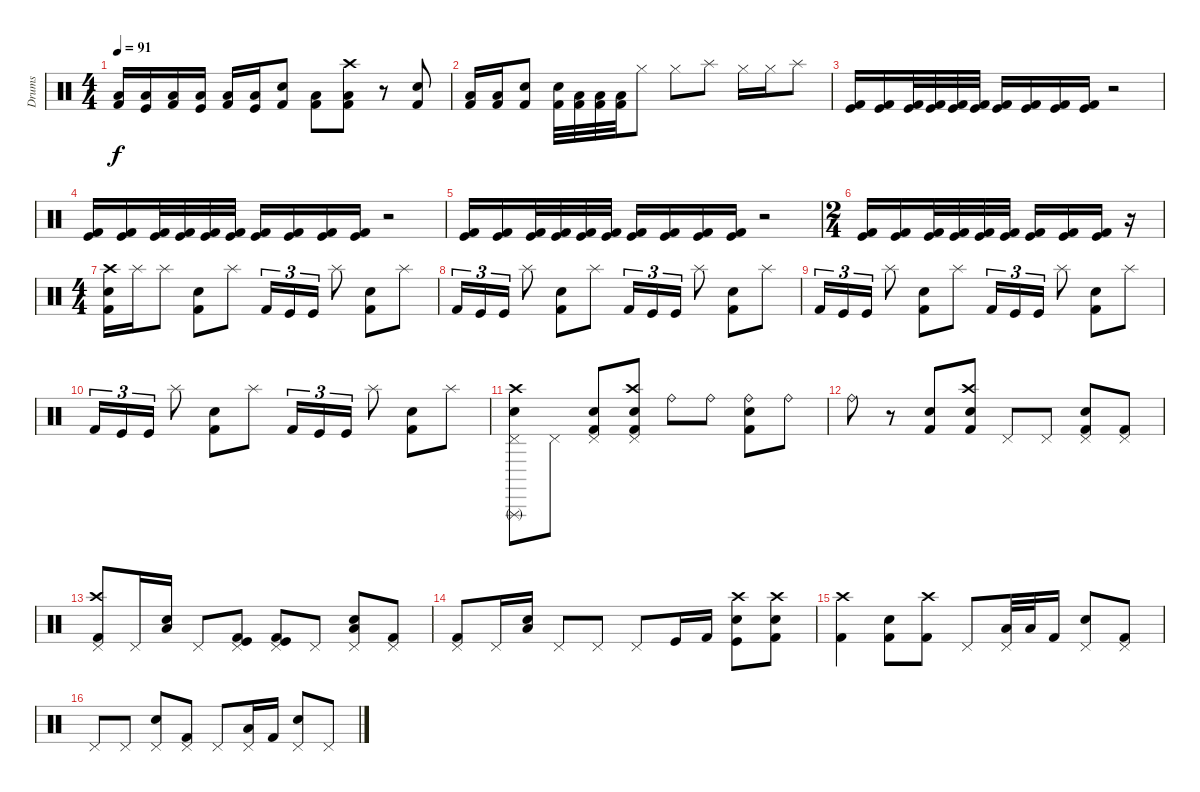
\track ("Drums" "Drums") {instrument percussion}
\staff {score}
\articulation defaults
\ts (4 4)
\tempo 91
\clef neutral
\ks c
("Kick (hit) 2" "Low Floor Tom (hit)").16{dy f} ("Kick (hit)" "Low Floor Tom (hit)").16 ("Kick (hit) 2" "Low Floor Tom (hit)").16 ("Kick (hit)" "Low Floor Tom (hit)").16 ("Kick (hit) 2" "Low Floor Tom (hit)").16 ("Kick (hit)" "Low Floor Tom (hit)").16 ("Kick (hit) 2" "Electric Snare (hit)").8 ("Kick (hit) 2" "Low Floor Tom (hit)").8 ("Kick (hit) 2" "Low Floor Tom (hit)" "Crash high (hit)").8 r.8 ("Kick (hit) 2" "Electric Snare (hit)").8 |
("Kick (hit) 2" "Low Floor Tom (hit)").16 ("Kick (hit) 2" "Low Floor Tom (hit)").16 ("Kick (hit) 2" "Electric Snare (hit)").8 ("Kick (hit) 2" "Electric Snare (hit)").32 ("Kick (hit) 2" "Low Floor Tom (hit)").32 ("Kick (hit) 2" "Low Floor Tom (hit)").32 ("Kick (hit) 2" "Low Floor Tom (hit)").32 "Hi-Hat (closed)".8 "Hi-Hat (closed)".8 "Splash (hit)".8 "Hi-Hat (closed)".16 "Hi-Hat (closed)".16 "Splash (hit)".8 |
("Kick (hit) 2" "Kick (hit)").16 ("Kick (hit) 2" "Kick (hit)").16 ("Kick (hit) 2" "Kick (hit)").32 ("Kick (hit) 2" "Kick (hit)").32 ("Kick (hit) 2" "Kick (hit)").32 ("Kick (hit) 2" "Kick (hit)").32 ("Kick (hit) 2" "Kick (hit)").16 ("Kick (hit) 2" "Kick (hit)").16 ("Kick (hit) 2" "Kick (hit)").16 ("Kick (hit) 2" "Kick (hit)").16 r.2 |
("Kick (hit) 2" "Kick (hit)").16 ("Kick (hit) 2" "Kick (hit)").16 ("Kick (hit) 2" "Kick (hit)").32 ("Kick (hit) 2" "Kick (hit)").32 ("Kick (hit) 2" "Kick (hit)").32 ("Kick (hit) 2" "Kick (hit)").32 ("Kick (hit) 2" "Kick (hit)").16 ("Kick (hit) 2" "Kick (hit)").16 ("Kick (hit) 2" "Kick (hit)").16 ("Kick (hit) 2" "Kick (hit)").16 r.2 |
("Kick (hit) 2" "Kick (hit)").16 ("Kick (hit) 2" "Kick (hit)").16 ("Kick (hit) 2" "Kick (hit)").32 ("Kick (hit) 2" "Kick (hit)").32 ("Kick (hit) 2" "Kick (hit)").32 ("Kick (hit) 2" "Kick (hit)").32 ("Kick (hit) 2" "Kick (hit)").16 ("Kick (hit) 2" "Kick (hit)").16 ("Kick (hit) 2" "Kick (hit)").16 ("Kick (hit) 2" "Kick (hit)").16 r.2 |
\ts (2 4)
("Kick (hit) 2" "Kick (hit)").16 ("Kick (hit) 2" "Kick (hit)").16 ("Kick (hit) 2" "Kick (hit)").32 ("Kick (hit) 2" "Kick (hit)").32 ("Kick (hit) 2" "Kick (hit)").32 ("Kick (hit) 2" "Kick (hit)").32 ("Kick (hit) 2" "Kick (hit)").16 ("Kick (hit) 2" "Kick (hit)").16 ("Kick (hit) 2" "Kick (hit)").16 r.16 |
\ts (4 4)
("Kick (hit) 2" "Electric Snare (hit)" "Crash high (hit)").16 "Splash (hit)".16 "Splash (hit)".8 ("Kick (hit) 2" "Electric Snare (hit)").8 "Splash (hit)".8 "Kick (hit) 2".16{tu (3 2)} "Kick (hit)".16{tu (3 2)} "Kick (hit)".16{tu (3 2)} "Splash (hit)".8 ("Kick (hit) 2" "Electric Snare (hit)").8 "Splash (hit)".8 |
"Kick (hit) 2".16{tu (3 2)} "Kick (hit)".16{tu (3 2)} "Kick (hit)".16{tu (3 2)} "Splash (hit)".8 ("Kick (hit) 2" "Electric Snare (hit)").8 "Splash (hit)".8 "Kick (hit) 2".16{tu (3 2)} "Kick (hit)".16{tu (3 2)} "Kick (hit)".16{tu (3 2)} "Splash (hit)".8 ("Kick (hit) 2" "Electric Snare (hit)").8 "Splash (hit)".8 |
"Kick (hit) 2".16{tu (3 2)} "Kick (hit)".16{tu (3 2)} "Kick (hit)".16{tu (3 2)} "Splash (hit)".8 ("Kick (hit) 2" "Electric Snare (hit)").8 "Splash (hit)".8 "Kick (hit) 2".16{tu (3 2)} "Kick (hit)".16{tu (3 2)} "Kick (hit)".16{tu (3 2)} "Splash (hit)".8 ("Kick (hit) 2" "Electric Snare (hit)").8 "Splash (hit)".8 |
"Kick (hit) 2".16{tu (3 2)} "Kick (hit)".16{tu (3 2)} "Kick (hit)".16{tu (3 2)} "Splash (hit)".8 ("Kick (hit) 2" "Electric Snare (hit)").8 "Splash (hit)".8 "Kick (hit) 2".16{tu (3 2)} "Kick (hit)".16{tu (3 2)} "Kick (hit)".16{tu (3 2)} "Splash (hit)".8 ("Kick (hit) 2" "Electric Snare (hit)").8 "Splash (hit)".8 |
("Triangle (rnute)" "Snare (hit) 2" "Crash high (hit)" "Pedal Hi-Hat (hit)").8 "Pedal Hi-Hat (hit)".8 ("Pedal Hi-Hat (hit)" "Kick (hit) 2" "Electric Snare (hit)").8 ("Pedal Hi-Hat (hit)" "Kick (hit) 2" "Snare (hit) 2" "Crash high (hit)").8 "Ride (bell)".8 "Ride (bell)".8 ("Ride (bell)" "Electric Snare (hit)" "Kick (hit) 2").8 "Ride (bell)".8 |
"Ride (bell)".8 r.8 ("Kick (hit) 2" "Electric Snare (hit)").8 ("Kick (hit) 2" "Snare (hit) 2" "Crash high (hit)").8 "Pedal Hi-Hat (hit)".8 "Pedal Hi-Hat (hit)".8 ("Pedal Hi-Hat (hit)" "Kick (hit) 2" "Electric Snare (hit)").8 ("Pedal Hi-Hat (hit)" "Kick (hit) 2").8 |
("Pedal Hi-Hat (hit)" "Kick (hit) 2" "Crash high (hit)").8 "Pedal Hi-Hat (hit)".16 ("Electric Snare (hit)" "Low Tom (hit)").16 "Pedal Hi-Hat (hit)".8 ("Pedal Hi-Hat (hit)" "Kick (hit) 2" "Kick (hit)").8 ("Pedal Hi-Hat (hit)" "Kick (hit) 2" "Kick (hit)").8 "Pedal Hi-Hat (hit)".8 ("Pedal Hi-Hat (hit)" "Electric Snare (hit)" "Low Tom (hit)").8 ("Pedal Hi-Hat (hit)" "Kick (hit) 2").8 |
("Pedal Hi-Hat (hit)" "Kick (hit) 2").8 "Pedal Hi-Hat (hit)".16 ("Electric Snare (hit)" "Low Tom (hit)").16 "Pedal Hi-Hat (hit)".8 "Pedal Hi-Hat (hit)".8 "Pedal Hi-Hat (hit)".8 "Kick (hit)".16 "Kick (hit) 2".16 ("Crash high (hit)" "Electric Snare (hit)" "Kick (hit)").8 ("Crash high (hit)" "Electric Snare (hit)" "Kick (hit) 2").8 |
("Crash high (hit)" "Kick (hit) 2").4 ("Kick (hit) 2" "Electric Snare (hit)").8 ("Kick (hit) 2" "Crash high (hit)").8 "Pedal Hi-Hat (hit)".8 ("Pedal Hi-Hat (hit)" "Low Floor Tom (hit)").32 "Low Tom (hit)".32 "Kick (hit) 2".16 ("Pedal Hi-Hat (hit)" "Electric Snare (hit)").8 ("Pedal Hi-Hat (hit)" "Kick (hit) 2").8 |
"Pedal Hi-Hat (hit)".8 "Pedal Hi-Hat (hit)".8 ("Pedal Hi-Hat (hit)" "Electric Snare (hit)").8 ("Pedal Hi-Hat (hit)" "Kick (hit) 2").8 "Pedal Hi-Hat (hit)".8 ("Pedal Hi-Hat (hit)" "Low Floor Tom (hit)").16 "Kick (hit) 2".16 ("Pedal Hi-Hat (hit)" "Electric Snare (hit)").8 "Pedal Hi-Hat (hit)".8
